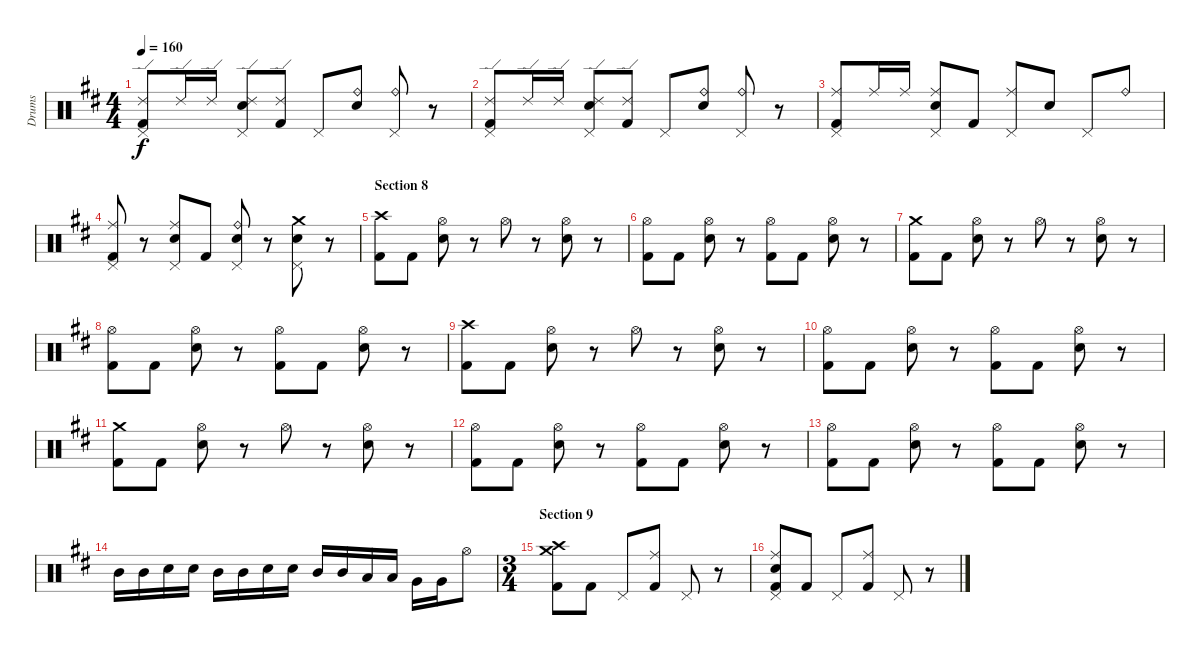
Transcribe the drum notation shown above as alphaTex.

\track ("Drums" "Drums") {instrument percussion}
\staff {score}
\articulation defaults
\ts (4 4)
\tempo 160
\clef neutral
\ks bminor
("Ride (edge) 2" "Pedal Hi-Hat (hit)" "Kick (hit) 2").8{dy f} "Ride (edge) 2".16 "Ride (edge) 2".16 ("Ride (edge) 2" "Pedal Hi-Hat (hit)" "Snare (hit) 2").8 ("Ride (edge) 2" "Kick (hit) 2").8 "Pedal Hi-Hat (hit)".8 ("Ride (bell)" "Snare (hit) 2").8 ("Ride (bell)" "Pedal Hi-Hat (hit)").8 r.8 |
("Ride (edge) 2" "Pedal Hi-Hat (hit)" "Kick (hit) 2").8 "Ride (edge) 2".16 "Ride (edge) 2".16 ("Ride (edge) 2" "Pedal Hi-Hat (hit)" "Snare (hit) 2").8 ("Ride (edge) 2" "Kick (hit) 2").8 "Pedal Hi-Hat (hit)".8 ("Ride (bell)" "Snare (hit) 2").8 ("Ride (bell)" "Pedal Hi-Hat (hit)").8 r.8 |
("Ride (middle)" "Pedal Hi-Hat (hit)" "Kick (hit) 2").8 "Ride (middle)".16 "Ride (middle)".16 ("Ride (middle)" "Pedal Hi-Hat (hit)" "Snare (hit) 2").8 "Kick (hit) 2".8 ("Ride (middle)" "Pedal Hi-Hat (hit)").8 "Snare (hit) 2".8 "Pedal Hi-Hat (hit)".8 "Ride (bell)".8 |
("Ride (middle)" "Pedal Hi-Hat (hit)" "Kick (hit) 2").8 r.8 ("Ride (middle)" "Pedal Hi-Hat (hit)" "Snare (hit) 2").8 "Kick (hit) 2".8 ("Ride (bell)" "Pedal Hi-Hat (hit)" "Snare (hit) 2").8 r.8 ("Crash medium (hit)" "Pedal Hi-Hat (hit)" "Snare (hit) 2").8 r.8 |
\section ("" "Section 8")
("Crash high (hit)" "Kick (hit) 2").8 "Kick (hit) 2".8 ("Hi-Hat (open)" "Snare (hit) 2").8 r.8 "Hi-Hat (open)".8 r.8 ("Hi-Hat (open)" "Snare (hit) 2").8 r.8 |
("Hi-Hat (open)" "Kick (hit) 2").8 "Kick (hit) 2".8 ("Hi-Hat (open)" "Snare (hit) 2").8 r.8 ("Hi-Hat (open)" "Kick (hit) 2").8 "Kick (hit) 2".8 ("Hi-Hat (open)" "Snare (hit) 2").8 r.8 |
("Crash medium (hit)" "Kick (hit) 2").8 "Kick (hit) 2".8 ("Hi-Hat (open)" "Snare (hit) 2").8 r.8 "Hi-Hat (open)".8 r.8 ("Hi-Hat (open)" "Snare (hit) 2").8 r.8 |
("Hi-Hat (open)" "Kick (hit) 2").8 "Kick (hit) 2".8 ("Hi-Hat (open)" "Snare (hit) 2").8 r.8 ("Hi-Hat (open)" "Kick (hit) 2").8 "Kick (hit) 2".8 ("Hi-Hat (open)" "Snare (hit) 2").8 r.8 |
("Crash high (hit)" "Kick (hit) 2").8 "Kick (hit) 2".8 ("Hi-Hat (open)" "Snare (hit) 2").8 r.8 "Hi-Hat (open)".8 r.8 ("Hi-Hat (open)" "Snare (hit) 2").8 r.8 |
("Hi-Hat (open)" "Kick (hit) 2").8 "Kick (hit) 2".8 ("Hi-Hat (open)" "Snare (hit) 2").8 r.8 ("Hi-Hat (open)" "Kick (hit) 2").8 "Kick (hit) 2".8 ("Hi-Hat (open)" "Snare (hit) 2").8 r.8 |
("Crash medium (hit)" "Kick (hit) 2").8 "Kick (hit) 2".8 ("Hi-Hat (open)" "Snare (hit) 2").8 r.8 "Hi-Hat (open)".8 r.8 ("Hi-Hat (open)" "Snare (hit) 2").8 r.8 |
("Hi-Hat (open)" "Kick (hit) 2").8 "Kick (hit) 2".8 ("Hi-Hat (open)" "Snare (hit) 2").8 r.8 ("Hi-Hat (open)" "Kick (hit) 2").8 "Kick (hit) 2".8 ("Hi-Hat (open)" "Snare (hit) 2").8 r.8 |
("Hi-Hat (open)" "Kick (hit) 2").8 "Kick (hit) 2".8 ("Hi-Hat (open)" "Snare (hit) 2").8 r.8 ("Hi-Hat (open)" "Kick (hit) 2").8 "Kick (hit) 2".8 ("Hi-Hat (open)" "Snare (hit) 2").8 r.8 |
"Mid Tom (hit)".16 "Mid Tom (hit)".16 "Snare (hit) 2".16 "Snare (hit) 2".16 "Mid Tom (hit)".16 "Mid Tom (hit)".16 "Snare (hit) 2".16 "Snare (hit) 2".16 "Mid Tom (hit)".16 "Mid Tom (hit)".16 "Low Tom (hit)".16 "Low Tom (hit)".16 "Very Low Tom (hit)".16 "Very Low Tom (hit)".16 "Hi-Hat (open)".8 |
\ts (3 4)
\section ("" "Section 9")
("Crash high (hit)" "Crash medium (hit)" "Kick (hit) 2").8 "Kick (hit) 2".8 "Pedal Hi-Hat (hit)".8 ("Ride (middle)" "Kick (hit) 2").8 "Pedal Hi-Hat (hit)".8 r.8 |
("Ride (middle)" "Pedal Hi-Hat (hit)" "Snare (hit) 2" "Kick (hit) 2").8 "Kick (hit) 2".8 "Pedal Hi-Hat (hit)".8 ("Ride (middle)" "Kick (hit) 2").8 "Pedal Hi-Hat (hit)".8 r.8
